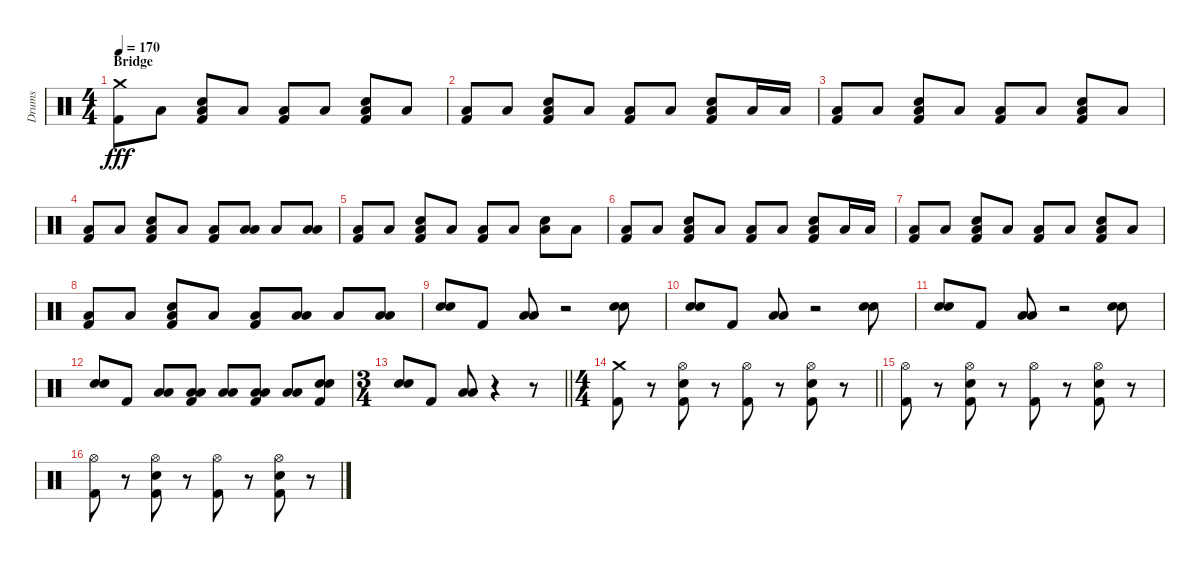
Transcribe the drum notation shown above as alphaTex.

\track ("Drums" "Drums") {instrument percussion}
\staff {score}
\articulation defaults
\ts (4 4)
\section ("" "Bridge")
\tempo 170
\clef neutral
\ks c
("Crash medium (hit)" "Kick (hit) 2").8{dy fff} "Low Floor Tom (hit)".8 ("Low Floor Tom (hit)" "Electric Snare (hit)" "Kick (hit) 2").8 "Low Floor Tom (hit)".8 ("Low Floor Tom (hit)" "Kick (hit) 2").8 "Low Floor Tom (hit)".8 ("Low Floor Tom (hit)" "Electric Snare (hit)" "Kick (hit) 2").8 "Low Floor Tom (hit)".8 |
("Low Floor Tom (hit)" "Kick (hit) 2").8 "Low Floor Tom (hit)".8 ("Low Floor Tom (hit)" "Electric Snare (hit)" "Kick (hit) 2").8 "Low Floor Tom (hit)".8 ("Low Floor Tom (hit)" "Kick (hit) 2").8 "Low Floor Tom (hit)".8 ("Low Floor Tom (hit)" "Electric Snare (hit)" "Kick (hit) 2").8 "Low Floor Tom (hit)".16 "Low Floor Tom (hit)".16 |
("Low Floor Tom (hit)" "Kick (hit) 2").8 "Low Floor Tom (hit)".8 ("Low Floor Tom (hit)" "Electric Snare (hit)" "Kick (hit) 2").8 "Low Floor Tom (hit)".8 ("Low Floor Tom (hit)" "Kick (hit) 2").8 "Low Floor Tom (hit)".8 ("Low Floor Tom (hit)" "Electric Snare (hit)" "Kick (hit) 2").8 "Low Floor Tom (hit)".8 |
("Low Floor Tom (hit)" "Kick (hit) 2").8 "Low Floor Tom (hit)".8 ("Low Floor Tom (hit)" "Electric Snare (hit)" "Kick (hit) 2").8 "Low Floor Tom (hit)".8 ("Low Floor Tom (hit)" "Kick (hit) 2").8 ("Low Tom (hit)" "Low Floor Tom (hit)").8 "Low Floor Tom (hit)".8 ("Low Tom (hit)" "Low Floor Tom (hit)").8 |
("Low Floor Tom (hit)" "Kick (hit) 2").8 "Low Floor Tom (hit)".8 ("Low Floor Tom (hit)" "Electric Snare (hit)" "Kick (hit) 2").8 "Low Floor Tom (hit)".8 ("Low Floor Tom (hit)" "Kick (hit) 2").8 "Low Floor Tom (hit)".8 ("Low Floor Tom (hit)" "Electric Snare (hit)").8 "Low Floor Tom (hit)".8 |
("Low Floor Tom (hit)" "Kick (hit) 2").8 "Low Floor Tom (hit)".8 ("Low Floor Tom (hit)" "Electric Snare (hit)" "Kick (hit) 2").8 "Low Floor Tom (hit)".8 ("Low Floor Tom (hit)" "Kick (hit) 2").8 "Low Floor Tom (hit)".8 ("Low Floor Tom (hit)" "Electric Snare (hit)" "Kick (hit) 2").8 "Low Floor Tom (hit)".16 "Low Floor Tom (hit)".16 |
("Low Floor Tom (hit)" "Kick (hit) 2").8 "Low Floor Tom (hit)".8 ("Low Floor Tom (hit)" "Electric Snare (hit)" "Kick (hit) 2").8 "Low Floor Tom (hit)".8 ("Low Floor Tom (hit)" "Kick (hit) 2").8 "Low Floor Tom (hit)".8 ("Low Floor Tom (hit)" "Electric Snare (hit)" "Kick (hit) 2").8 "Low Floor Tom (hit)".8 |
("Low Floor Tom (hit)" "Kick (hit) 2").8 "Low Floor Tom (hit)".8 ("Low Floor Tom (hit)" "Electric Snare (hit)" "Kick (hit) 2").8 "Low Floor Tom (hit)".8 ("Low Floor Tom (hit)" "Kick (hit) 2").8 ("Low Tom (hit)" "Low Floor Tom (hit)").8 "Low Floor Tom (hit)".8 ("Low Tom (hit)" "Low Floor Tom (hit)").8 |
("Electric Snare (hit)" "Electric Snare (hit)").8 "Kick (hit) 2".8 ("Low Tom (hit)" "Low Floor Tom (hit)").8 r.2 ("Electric Snare (hit)" "Electric Snare (hit)").8 |
("Electric Snare (hit)" "Electric Snare (hit)").8 "Kick (hit) 2".8 ("Low Tom (hit)" "Low Floor Tom (hit)").8 r.2 ("Electric Snare (hit)" "Electric Snare (hit)").8 |
("Electric Snare (hit)" "Electric Snare (hit)").8 "Kick (hit) 2".8 ("Low Tom (hit)" "Low Floor Tom (hit)").8 r.2 ("Electric Snare (hit)" "Electric Snare (hit)").8 |
("Electric Snare (hit)" "Electric Snare (hit)").8 "Kick (hit) 2".8 ("Low Tom (hit)" "Low Floor Tom (hit)").8 ("Low Tom (hit)" "Low Floor Tom (hit)" "Kick (hit) 2").8 ("Low Tom (hit)" "Low Floor Tom (hit)").8 ("Low Tom (hit)" "Low Floor Tom (hit)" "Kick (hit) 2").8 ("Low Tom (hit)" "Low Floor Tom (hit)").8 ("Electric Snare (hit)" "Electric Snare (hit)" "Kick (hit) 2").8 |
\ts (3 4)
\barLineRight lightlight
("Electric Snare (hit)" "Electric Snare (hit)").8 "Kick (hit) 2".8 ("Low Tom (hit)" "Low Floor Tom (hit)").8 r.4 r.8 |
\ts (4 4)
\barLineRight lightlight
("Crash medium (hit)" "Kick (hit) 2").8 r.8 ("Hi-Hat (open)" "Electric Snare (hit)" "Kick (hit) 2").8 r.8 ("Hi-Hat (open)" "Kick (hit) 2").8 r.8 ("Hi-Hat (open)" "Electric Snare (hit)" "Kick (hit) 2").8 r.8 |
("Hi-Hat (open)" "Kick (hit) 2").8 r.8 ("Hi-Hat (open)" "Electric Snare (hit)" "Kick (hit) 2").8 r.8 ("Hi-Hat (open)" "Kick (hit) 2").8 r.8 ("Hi-Hat (open)" "Electric Snare (hit)" "Kick (hit) 2").8 r.8 |
("Hi-Hat (open)" "Kick (hit) 2").8 r.8 ("Hi-Hat (open)" "Electric Snare (hit)" "Kick (hit) 2").8 r.8 ("Hi-Hat (open)" "Kick (hit) 2").8 r.8 ("Hi-Hat (open)" "Electric Snare (hit)" "Kick (hit) 2").8 r.8
